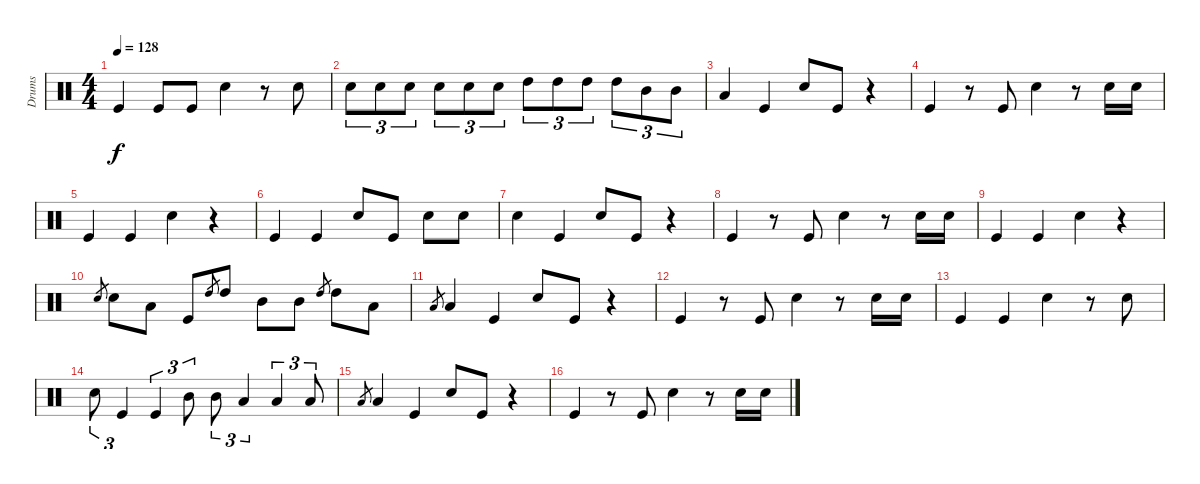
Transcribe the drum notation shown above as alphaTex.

\track ("Drums" "Drums") {instrument percussion}
\staff {score}
\articulation defaults
\ts (4 4)
\tempo 128
\clef neutral
\ks c "Kick (hit)".4{dy f} "Kick (hit)".8 "Kick (hit)".8 "Snare (hit) 2".4
r.8 "Snare (hit) 2".8 |
"Snare (hit) 2".8{tu (3 2)} "Snare (hit) 2".8{tu (3 2)} "Snare (hit) 2".8{tu (3 2)} "Snare (hit) 2".8{tu (3 2)} "Snare (hit) 2".8{tu (3 2)} "Snare (hit) 2".8{tu (3 2)} "High Tom (hit)".8{tu (3 2)} "High Tom (hit)".8{tu (3 2)} "High Tom (hit)".8{tu (3 2)} "High Tom (hit)".8{tu (3 2)} "Mid Tom (hit)".8{tu (3 2)} "Mid Tom (hit)".8{tu (3 2)} |
"Low Tom (hit)".4 "Kick (hit)".4 "Snare (hit) 2".8 "Kick (hit)".8 r.4 |
"Kick (hit)".4 r.8 "Kick (hit)".8 "Snare (hit) 2".4 r.8 "Snare (hit) 2".16 "Snare (hit) 2".16 |
"Kick (hit)".4 "Kick (hit)".4 "Snare (hit) 2".4 r.4 |
"Kick (hit)".4 "Kick (hit)".4 "Snare (hit) 2".8 "Kick (hit)".8 "Snare (hit) 2".8 "Snare (hit) 2".8 |
"Snare (hit) 2".4 "Kick (hit)".4 "Snare (hit) 2".8 "Kick (hit)".8 r.4 |
"Kick (hit)".4 r.8 "Kick (hit)".8 "Snare (hit) 2".4 r.8 "Snare (hit) 2".16 "Snare (hit) 2".16 |
"Kick (hit)".4 "Kick (hit)".4 "Snare (hit) 2".4 r.4 |
"Snare (hit) 2".8{gr} "Snare (hit) 2".8 "Low Tom (hit)".8 "Kick (hit)".8 "High Tom (hit)".8{gr} "High Tom (hit)".8 "Mid Tom (hit)".8 "Mid Tom (hit)".8 "High Tom (hit)".8{gr} "High Tom (hit)".8 "Low Tom (hit)".8 |
"Low Tom (hit)".8{gr} "Low Tom (hit)".4 "Kick (hit)".4 "Snare (hit) 2".8 "Kick (hit)".8 r.4 |
"Kick (hit)".4 r.8 "Kick (hit)".8 "Snare (hit) 2".4 r.8 "Snare (hit) 2".16 "Snare (hit) 2".16 |
"Kick (hit)".4 "Kick (hit)".4 "Snare (hit) 2".4 r.8 "Snare (hit) 2".8 |
"Snare (hit) 2".8{tu (3 2)} "Kick (hit)".4{tu (3 2)} "Kick (hit)".4{tu (3 2)} "Mid Tom (hit)".8{tu (3 2)} "Mid Tom (hit)".8{tu (3 2)} "Low Tom (hit)".4{tu (3 2)} "Low Tom (hit)".4{tu (3 2)} "Low Tom (hit)".8{tu (3 2)} |
"Low Tom (hit)".8{gr} "Low Tom (hit)".4 "Kick (hit)".4 "Snare (hit) 2".8 "Kick (hit)".8 r.4 |
"Kick (hit)".4{volume 5} r.8 "Kick (hit)".8 "Snare (hit) 2".4 r.8 "Snare (hit) 2".16 "Snare (hit) 2".16
